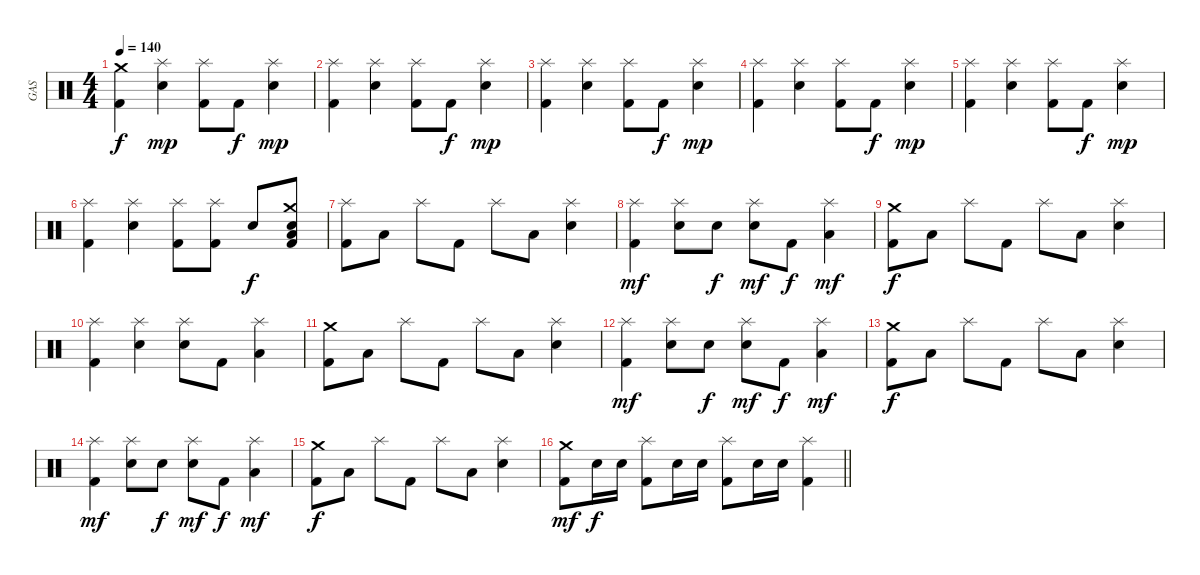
\track ("GAS" "GAS") {instrument percussion}
\staff {score}
\articulation defaults
\ts (4 4)
\tempo 140
\clef neutral
\ks c
("Kick (hit) 2" "Crash medium (hit)").4{dy f} ("Electric Snare (hit)" "Splash (hit)").4{dy mp} ("Kick (hit) 2" "Splash (hit)").8 "Kick (hit) 2".8{dy f} ("Electric Snare (hit)" "Splash (hit)").4{dy mp} |
("Kick (hit) 2" "Splash (hit)").4 ("Electric Snare (hit)" "Splash (hit)").4 ("Kick (hit) 2" "Splash (hit)").8 "Kick (hit) 2".8{dy f} ("Electric Snare (hit)" "Splash (hit)").4{dy mp} |
("Kick (hit) 2" "Splash (hit)").4 ("Electric Snare (hit)" "Splash (hit)").4 ("Kick (hit) 2" "Splash (hit)").8 "Kick (hit) 2".8{dy f} ("Electric Snare (hit)" "Splash (hit)").4{dy mp} |
("Kick (hit) 2" "Splash (hit)").4 ("Electric Snare (hit)" "Splash (hit)").4 ("Kick (hit) 2" "Splash (hit)").8 "Kick (hit) 2".8{dy f} ("Electric Snare (hit)" "Splash (hit)").4{dy mp} |
("Kick (hit) 2" "Splash (hit)").4 ("Electric Snare (hit)" "Splash (hit)").4 ("Kick (hit) 2" "Splash (hit)").8 "Kick (hit) 2".8{dy f} ("Electric Snare (hit)" "Splash (hit)").4{dy mp} |
("Kick (hit) 2" "Splash (hit)").4 ("Electric Snare (hit)" "Splash (hit)").4 ("Kick (hit) 2" "Splash (hit)").8 ("Kick (hit) 2" "Splash (hit)").8 "Electric Snare (hit)".8{dy f} ("Kick (hit) 2" "Electric Snare (hit)" "Low Tom (hit)" "Crash medium (hit)").8 |
("Kick (hit) 2" "Splash (hit)").8 "Low Tom (hit)".8 "Splash (hit)".8 "Kick (hit) 2".8 "Splash (hit)".8 "Low Tom (hit)".8 ("Electric Snare (hit)" "Splash (hit)").4 |
("Kick (hit) 2" "Splash (hit)").4{dy mf} ("Electric Snare (hit)" "Splash (hit)").8 "Electric Snare (hit)".8{dy f} ("Electric Snare (hit)" "Splash (hit)").8{dy mf} "Kick (hit) 2".8{dy f} ("Low Tom (hit)" "Splash (hit)").4{dy mf} |
("Kick (hit) 2" "Crash medium (hit)").8{dy f} "Low Tom (hit)".8 "Splash (hit)".8 "Kick (hit) 2".8 "Splash (hit)".8 "Low Tom (hit)".8 ("Electric Snare (hit)" "Splash (hit)").4 |
("Kick (hit) 2" "Splash (hit)").4 ("Electric Snare (hit)" "Splash (hit)").4 ("Electric Snare (hit)" "Splash (hit)").8 "Kick (hit) 2".8 ("Low Tom (hit)" "Splash (hit)").4 |
("Kick (hit) 2" "Crash medium (hit)").8 "Low Tom (hit)".8 "Splash (hit)".8 "Kick (hit) 2".8 "Splash (hit)".8 "Low Tom (hit)".8 ("Electric Snare (hit)" "Splash (hit)").4 |
("Kick (hit) 2" "Splash (hit)").4{dy mf} ("Electric Snare (hit)" "Splash (hit)").8 "Electric Snare (hit)".8{dy f} ("Electric Snare (hit)" "Splash (hit)").8{dy mf} "Kick (hit) 2".8{dy f} ("Low Tom (hit)" "Splash (hit)").4{dy mf} |
("Kick (hit) 2" "Crash medium (hit)").8{dy f} "Low Tom (hit)".8 "Splash (hit)".8 "Kick (hit) 2".8 "Splash (hit)".8 "Low Tom (hit)".8 ("Electric Snare (hit)" "Splash (hit)").4 |
("Kick (hit) 2" "Splash (hit)").4{dy mf} ("Electric Snare (hit)" "Splash (hit)").8 "Electric Snare (hit)".8{dy f} ("Electric Snare (hit)" "Splash (hit)").8{dy mf} "Kick (hit) 2".8{dy f} ("Low Tom (hit)" "Splash (hit)").4{dy mf} |
("Kick (hit) 2" "Crash medium (hit)").8{dy f} "Low Tom (hit)".8 "Splash (hit)".8 "Kick (hit) 2".8 "Splash (hit)".8 "Low Tom (hit)".8 ("Electric Snare (hit)" "Splash (hit)").4 |
\barLineRight lightlight
("Kick (hit) 2" "Crash medium (hit)").8{dy mf} "Electric Snare (hit)".16{dy f} "Electric Snare (hit)".16 ("Kick (hit) 2" "Splash (hit)").8 "Electric Snare (hit)".16 "Electric Snare (hit)".16 ("Kick (hit) 2" "Splash (hit)").8 "Electric Snare (hit)".16 "Electric Snare (hit)".16 ("Kick (hit) 2" "Splash (hit)").4
